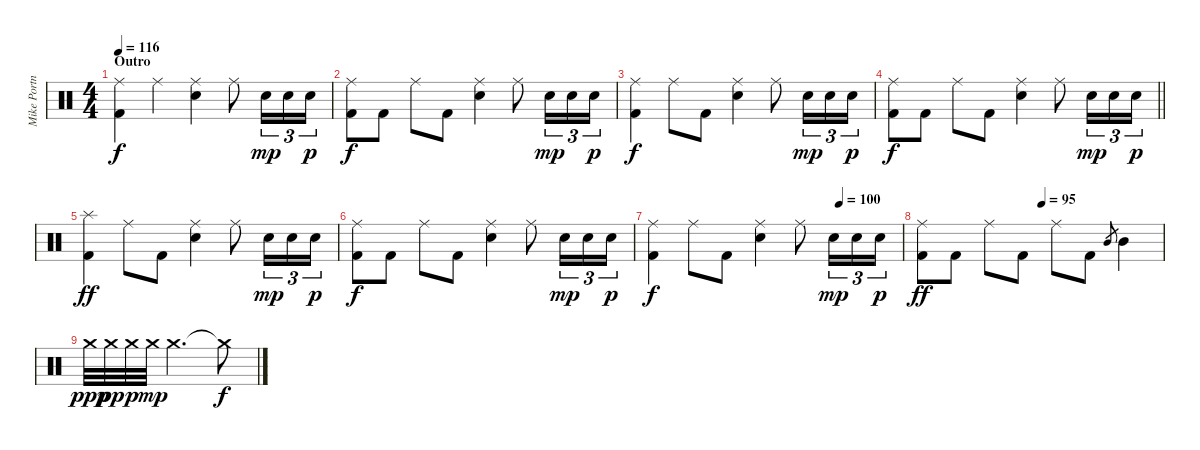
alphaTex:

\track ("Mike Portnoy [Drums]" "Mike Portn") {instrument percussion}
\staff {score}
\articulation defaults
\ts (4 4)
\section ("" "Outro")
\tempo 116
\clef neutral
\ks c
("Ride (middle)" "Kick (hit) 2").4{dy f} "Ride (middle)".4 ("Ride (middle)" "Electric Snare (hit)").4 "Ride (middle)".8 "Electric Snare (hit)".16{tu (3 2) dy mp} "Electric Snare (hit)".16{tu (3 2)} "Electric Snare (hit)".16{tu (3 2) dy p} |
("Ride (middle)" "Kick (hit) 2").8{dy f} "Kick (hit) 2".8 "Ride (middle)".8 "Kick (hit) 2".8 ("Ride (middle)" "Electric Snare (hit)").4 "Ride (middle)".8 "Electric Snare (hit)".16{tu (3 2) dy mp} "Electric Snare (hit)".16{tu (3 2)} "Electric Snare (hit)".16{tu (3 2) dy p} |
("Ride (middle)" "Kick (hit) 2").4{dy f} "Ride (middle)".8 "Kick (hit) 2".8 ("Ride (middle)" "Electric Snare (hit)").4 "Ride (middle)".8 "Electric Snare (hit)".16{tu (3 2) dy mp} "Electric Snare (hit)".16{tu (3 2)} "Electric Snare (hit)".16{tu (3 2) dy p} |
\barLineRight lightlight
("Ride (middle)" "Kick (hit) 2").8{dy f} "Kick (hit) 2".8 "Ride (middle)".8 "Kick (hit) 2".8 ("Ride (middle)" "Electric Snare (hit)").4 "Ride (middle)".8 "Electric Snare (hit)".16{tu (3 2) dy mp} "Electric Snare (hit)".16{tu (3 2)} "Electric Snare (hit)".16{tu (3 2) dy p} |
("Splash (hit)" "Kick (hit) 2").4{dy ff} "Ride (middle)".8 "Kick (hit) 2".8 ("Ride (middle)" "Electric Snare (hit)").4 "Ride (middle)".8 "Electric Snare (hit)".16{tu (3 2) dy mp} "Electric Snare (hit)".16{tu (3 2)} "Electric Snare (hit)".16{tu (3 2) dy p} |
("Ride (middle)" "Kick (hit) 2").8{dy f} "Kick (hit) 2".8 "Ride (middle)".8 "Kick (hit) 2".8 ("Ride (middle)" "Electric Snare (hit)").4 "Ride (middle)".8 "Electric Snare (hit)".16{tu (3 2) dy mp} "Electric Snare (hit)".16{tu (3 2)} "Electric Snare (hit)".16{tu (3 2) dy p} |
\tempo (100 0.75)
("Ride (middle)" "Kick (hit) 2").4{dy f} "Ride (middle)".8 "Kick (hit) 2".8 ("Ride (middle)" "Electric Snare (hit)").4 "Ride (middle)".8 "Electric Snare (hit)".16{tu (3 2) dy mp} "Electric Snare (hit)".16{tu (3 2)} "Electric Snare (hit)".16{tu (3 2) dy p} |
\tempo (95 0.5)
("Ride (middle)" "Kick (hit) 2").8{dy ff} "Kick (hit) 2".8 "Ride (middle)".8 "Kick (hit) 2".8 "Ride (middle)".8 "Kick (hit) 2".8 "Mid Tom (hit)".8{gr} "Mid Tom (hit)".4 |
"Crash medium (hit)".32{dy ppp} "Crash medium (hit)".32{dy pp} "Crash medium (hit)".32{dy p} "Crash medium (hit)".32{dy mp} "Crash medium (hit)".2{d} "Crash medium (hit)"{t}.8{dy f}
